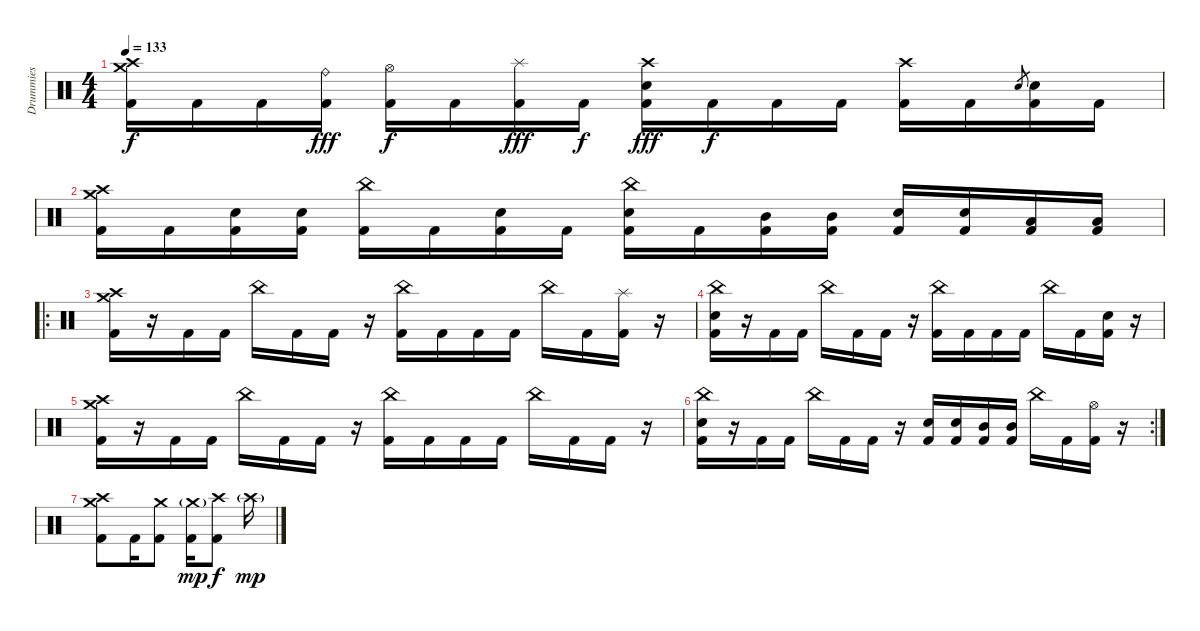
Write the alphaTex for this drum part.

\track ("Drummies" "Drummies") {instrument percussion}
\staff {score}
\articulation defaults
\ts (4 4)
\tempo 133
\clef neutral
\ks c
("Crash high (hit)" "Crash medium (hit)" "Kick (hit) 2").16{dy f} "Kick (hit) 2".16 "Kick (hit) 2".16 ("Ride (bell)" "Kick (hit) 2").16{dy fff} ("Hi-Hat (open)" "Kick (hit) 2").16{dy f} "Kick (hit) 2".16 ("Splash (hit)" "Kick (hit) 2").16{dy fff} "Kick (hit) 2".16{dy f} ("Crash high (hit)" "Electric Snare (hit)" "Kick (hit) 2").16{dy fff} "Kick (hit) 2".16{dy f} "Kick (hit) 2".16 "Kick (hit) 2".16 ("Crash high (hit)" "Kick (hit) 2").16 "Kick (hit) 2".16 "Electric Snare (hit)".8{gr} ("Electric Snare (hit)" "Kick (hit) 2").16 "Kick (hit) 2".16 |
("Crash medium (hit)" "Crash high (hit)" "Kick (hit) 2").16 "Kick (hit) 2".16 ("Electric Snare (hit)" "Kick (hit) 2").16 ("Electric Snare (hit)" "Kick (hit) 2").16 ("China (hit)" "Kick (hit) 2").16 "Kick (hit) 2".16 ("Electric Snare (hit)" "Kick (hit) 2").16 "Kick (hit) 2".16 ("China (hit)" "Electric Snare (hit)" "Kick (hit) 2").16 "Kick (hit) 2".16 ("Mid Tom (hit)" "Kick (hit) 2").16 ("Mid Tom (hit)" "Kick (hit) 2").16 ("Electric Snare (hit)" "Kick (hit) 2").16 ("Electric Snare (hit)" "Kick (hit) 2").16 ("Low Tom (hit)" "Kick (hit) 2").16 ("Low Tom (hit)" "Kick (hit) 2").16 |
\ro
("Crash high (hit)" "Crash medium (hit)" "Kick (hit) 2").16 r.16 "Kick (hit) 2".16 "Kick (hit) 2".16 "China (hit)".16 "Kick (hit) 2".16 "Kick (hit) 2".16 r.16 ("China (hit)" "Kick (hit) 2").16 "Kick (hit) 2".16 "Kick (hit) 2".16 "Kick (hit) 2".16 "China (hit)".16 "Kick (hit) 2".16 ("Splash (hit)" "Kick (hit) 2").16 r.16 |
("China (hit)" "Electric Snare (hit)" "Kick (hit) 2").16 r.16 "Kick (hit) 2".16 "Kick (hit) 2".16 "China (hit)".16 "Kick (hit) 2".16 "Kick (hit) 2".16 r.16 ("China (hit)" "Kick (hit) 2").16 "Kick (hit) 2".16 "Kick (hit) 2".16 "Kick (hit) 2".16 "China (hit)".16 "Kick (hit) 2".16 ("Electric Snare (hit)" "Kick (hit) 2").16 r.16 |
("Crash high (hit)" "Crash medium (hit)" "Kick (hit) 2").16 r.16 "Kick (hit) 2".16 "Kick (hit) 2".16 "China (hit)".16 "Kick (hit) 2".16 "Kick (hit) 2".16 r.16 ("China (hit)" "Kick (hit) 2").16 "Kick (hit) 2".16 "Kick (hit) 2".16 "Kick (hit) 2".16 "China (hit)".16 "Kick (hit) 2".16 "Kick (hit) 2".16 r.16 |
\rc 2
("China (hit)" "Electric Snare (hit)" "Kick (hit) 2").16 r.16 "Kick (hit) 2".16 "Kick (hit) 2".16 "China (hit)".16 "Kick (hit) 2".16 "Kick (hit) 2".16 r.16 ("Electric Snare (hit)" "Kick (hit) 2").16 ("Electric Snare (hit)" "Kick (hit) 2").16 ("Mid Tom (hit)" "Kick (hit) 2").16 ("Mid Tom (hit)" "Kick (hit) 2").16 "China (hit)".16 "Kick (hit) 2".16 ("Hi-Hat (open)" "Kick (hit) 2").16 r.16 |
("Crash high (hit)" "Crash medium (hit)" "Kick (hit) 2").8 "Kick (hit) 2".16 ("Crash medium (hit)" "Kick (hit) 2").8 ("Crash medium (hit)"{g} "Kick (hit) 2").16{dy mp} ("Crash high (hit)" "Kick (hit) 2").8{dy f} "Crash high (hit)"{g}.16{dy mp}
